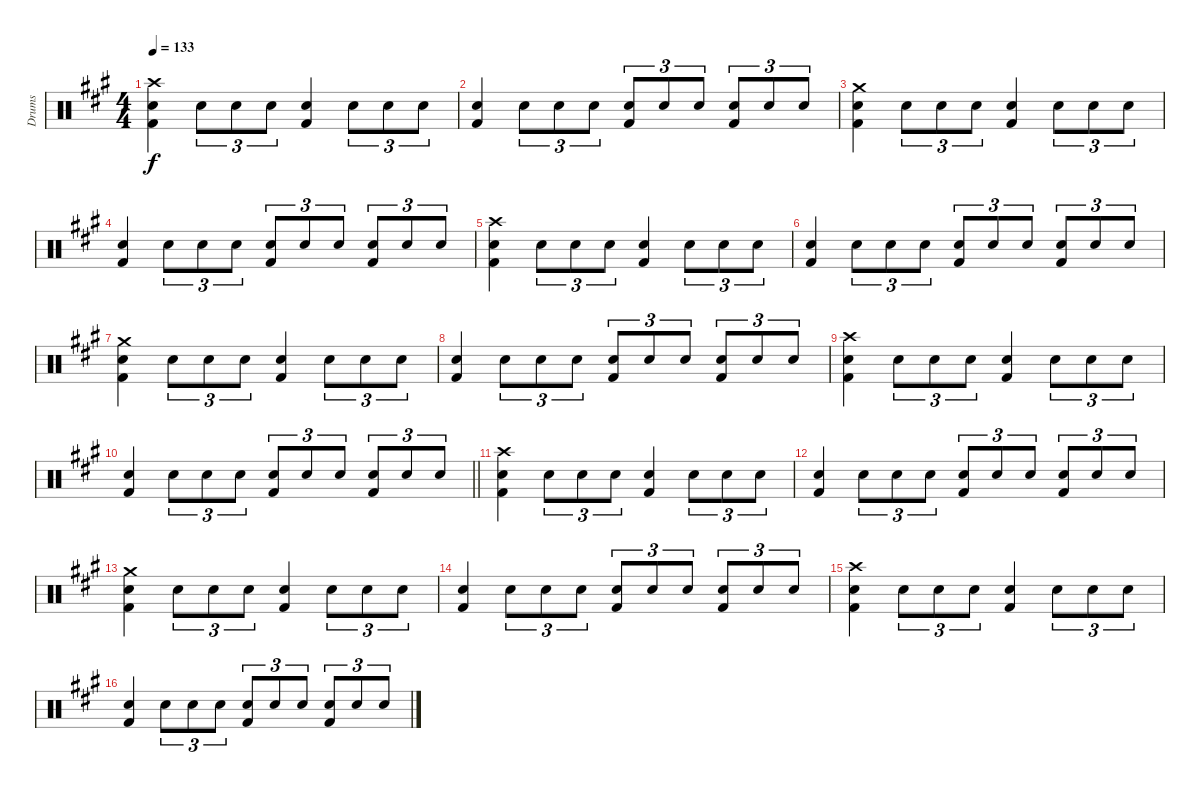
\track ("Drums" "Drums") {instrument percussion}
\staff {score}
\articulation defaults
\ts (4 4)
\tempo 133
\clef neutral
\ks a
("Crash high (hit)" "Snare (hit) 2" "Kick (hit) 2").4{dy f} "Snare (hit) 2".8{tu (3 2)} "Snare (hit) 2".8{tu (3 2)} "Snare (hit) 2".8{tu (3 2)} ("Snare (hit) 2" "Kick (hit) 2").4 "Snare (hit) 2".8{tu (3 2)} "Snare (hit) 2".8{tu (3 2)} "Snare (hit) 2".8{tu (3 2)} |
("Snare (hit) 2" "Kick (hit) 2").4 "Snare (hit) 2".8{tu (3 2)} "Snare (hit) 2".8{tu (3 2)} "Snare (hit) 2".8{tu (3 2)} ("Snare (hit) 2" "Kick (hit) 2").8{tu (3 2)} "Snare (hit) 2".8{tu (3 2)} "Snare (hit) 2".8{tu (3 2)} ("Snare (hit) 2" "Kick (hit) 2").8{tu (3 2)} "Snare (hit) 2".8{tu (3 2)} "Snare (hit) 2".8{tu (3 2)} |
("Crash medium (hit)" "Snare (hit) 2" "Kick (hit) 2").4 "Snare (hit) 2".8{tu (3 2)} "Snare (hit) 2".8{tu (3 2)} "Snare (hit) 2".8{tu (3 2)} ("Snare (hit) 2" "Kick (hit) 2").4 "Snare (hit) 2".8{tu (3 2)} "Snare (hit) 2".8{tu (3 2)} "Snare (hit) 2".8{tu (3 2)} |
("Snare (hit) 2" "Kick (hit) 2").4 "Snare (hit) 2".8{tu (3 2)} "Snare (hit) 2".8{tu (3 2)} "Snare (hit) 2".8{tu (3 2)} ("Snare (hit) 2" "Kick (hit) 2").8{tu (3 2)} "Snare (hit) 2".8{tu (3 2)} "Snare (hit) 2".8{tu (3 2)} ("Snare (hit) 2" "Kick (hit) 2").8{tu (3 2)} "Snare (hit) 2".8{tu (3 2)} "Snare (hit) 2".8{tu (3 2)} |
("Crash high (hit)" "Snare (hit) 2" "Kick (hit) 2").4 "Snare (hit) 2".8{tu (3 2)} "Snare (hit) 2".8{tu (3 2)} "Snare (hit) 2".8{tu (3 2)} ("Snare (hit) 2" "Kick (hit) 2").4 "Snare (hit) 2".8{tu (3 2)} "Snare (hit) 2".8{tu (3 2)} "Snare (hit) 2".8{tu (3 2)} |
("Snare (hit) 2" "Kick (hit) 2").4 "Snare (hit) 2".8{tu (3 2)} "Snare (hit) 2".8{tu (3 2)} "Snare (hit) 2".8{tu (3 2)} ("Snare (hit) 2" "Kick (hit) 2").8{tu (3 2)} "Snare (hit) 2".8{tu (3 2)} "Snare (hit) 2".8{tu (3 2)} ("Snare (hit) 2" "Kick (hit) 2").8{tu (3 2)} "Snare (hit) 2".8{tu (3 2)} "Snare (hit) 2".8{tu (3 2)} |
("Crash medium (hit)" "Snare (hit) 2" "Kick (hit) 2").4 "Snare (hit) 2".8{tu (3 2)} "Snare (hit) 2".8{tu (3 2)} "Snare (hit) 2".8{tu (3 2)} ("Snare (hit) 2" "Kick (hit) 2").4 "Snare (hit) 2".8{tu (3 2)} "Snare (hit) 2".8{tu (3 2)} "Snare (hit) 2".8{tu (3 2)} |
("Snare (hit) 2" "Kick (hit) 2").4 "Snare (hit) 2".8{tu (3 2)} "Snare (hit) 2".8{tu (3 2)} "Snare (hit) 2".8{tu (3 2)} ("Snare (hit) 2" "Kick (hit) 2").8{tu (3 2)} "Snare (hit) 2".8{tu (3 2)} "Snare (hit) 2".8{tu (3 2)} ("Snare (hit) 2" "Kick (hit) 2").8{tu (3 2)} "Snare (hit) 2".8{tu (3 2)} "Snare (hit) 2".8{tu (3 2)} |
("Crash high (hit)" "Snare (hit) 2" "Kick (hit) 2").4 "Snare (hit) 2".8{tu (3 2)} "Snare (hit) 2".8{tu (3 2)} "Snare (hit) 2".8{tu (3 2)} ("Snare (hit) 2" "Kick (hit) 2").4 "Snare (hit) 2".8{tu (3 2)} "Snare (hit) 2".8{tu (3 2)} "Snare (hit) 2".8{tu (3 2)} |
\barLineRight lightlight
("Snare (hit) 2" "Kick (hit) 2").4 "Snare (hit) 2".8{tu (3 2)} "Snare (hit) 2".8{tu (3 2)} "Snare (hit) 2".8{tu (3 2)} ("Snare (hit) 2" "Kick (hit) 2").8{tu (3 2)} "Snare (hit) 2".8{tu (3 2)} "Snare (hit) 2".8{tu (3 2)} ("Snare (hit) 2" "Kick (hit) 2").8{tu (3 2)} "Snare (hit) 2".8{tu (3 2)} "Snare (hit) 2".8{tu (3 2)} |
("Crash high (hit)" "Snare (hit) 2" "Kick (hit) 2").4 "Snare (hit) 2".8{tu (3 2)} "Snare (hit) 2".8{tu (3 2)} "Snare (hit) 2".8{tu (3 2)} ("Snare (hit) 2" "Kick (hit) 2").4 "Snare (hit) 2".8{tu (3 2)} "Snare (hit) 2".8{tu (3 2)} "Snare (hit) 2".8{tu (3 2)} |
("Snare (hit) 2" "Kick (hit) 2").4 "Snare (hit) 2".8{tu (3 2)} "Snare (hit) 2".8{tu (3 2)} "Snare (hit) 2".8{tu (3 2)} ("Snare (hit) 2" "Kick (hit) 2").8{tu (3 2)} "Snare (hit) 2".8{tu (3 2)} "Snare (hit) 2".8{tu (3 2)} ("Snare (hit) 2" "Kick (hit) 2").8{tu (3 2)} "Snare (hit) 2".8{tu (3 2)} "Snare (hit) 2".8{tu (3 2)} |
("Crash medium (hit)" "Snare (hit) 2" "Kick (hit) 2").4 "Snare (hit) 2".8{tu (3 2)} "Snare (hit) 2".8{tu (3 2)} "Snare (hit) 2".8{tu (3 2)} ("Snare (hit) 2" "Kick (hit) 2").4 "Snare (hit) 2".8{tu (3 2)} "Snare (hit) 2".8{tu (3 2)} "Snare (hit) 2".8{tu (3 2)} |
("Snare (hit) 2" "Kick (hit) 2").4 "Snare (hit) 2".8{tu (3 2)} "Snare (hit) 2".8{tu (3 2)} "Snare (hit) 2".8{tu (3 2)} ("Snare (hit) 2" "Kick (hit) 2").8{tu (3 2)} "Snare (hit) 2".8{tu (3 2)} "Snare (hit) 2".8{tu (3 2)} ("Snare (hit) 2" "Kick (hit) 2").8{tu (3 2)} "Snare (hit) 2".8{tu (3 2)} "Snare (hit) 2".8{tu (3 2)} |
("Crash high (hit)" "Snare (hit) 2" "Kick (hit) 2").4 "Snare (hit) 2".8{tu (3 2)} "Snare (hit) 2".8{tu (3 2)} "Snare (hit) 2".8{tu (3 2)} ("Snare (hit) 2" "Kick (hit) 2").4 "Snare (hit) 2".8{tu (3 2)} "Snare (hit) 2".8{tu (3 2)} "Snare (hit) 2".8{tu (3 2)} |
("Snare (hit) 2" "Kick (hit) 2").4 "Snare (hit) 2".8{tu (3 2)} "Snare (hit) 2".8{tu (3 2)} "Snare (hit) 2".8{tu (3 2)} ("Snare (hit) 2" "Kick (hit) 2").8{tu (3 2)} "Snare (hit) 2".8{tu (3 2)} "Snare (hit) 2".8{tu (3 2)} ("Snare (hit) 2" "Kick (hit) 2").8{tu (3 2)} "Snare (hit) 2".8{tu (3 2)} "Snare (hit) 2".8{tu (3 2)}
